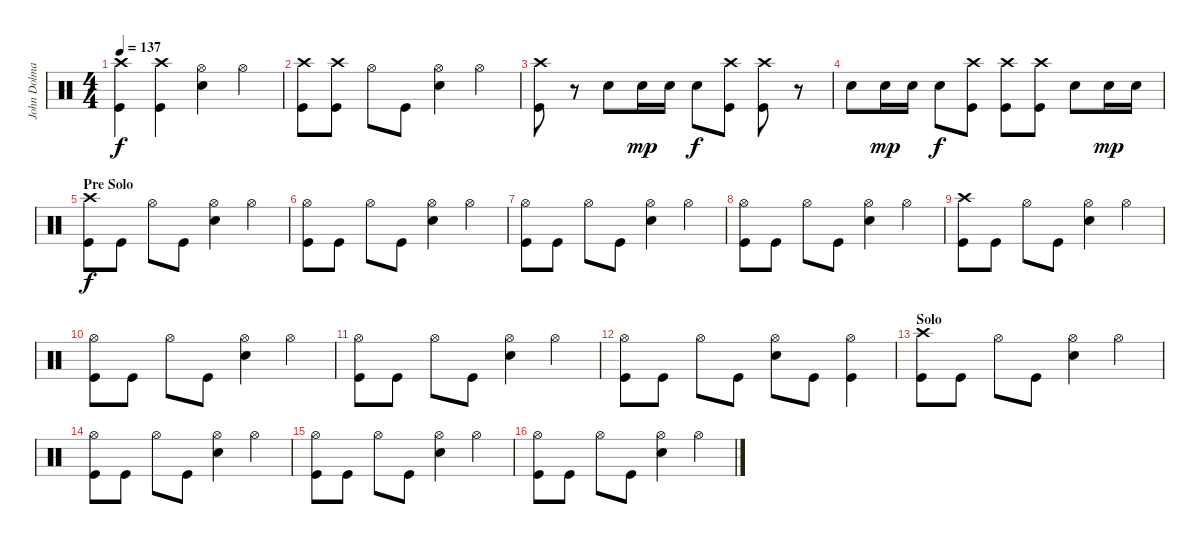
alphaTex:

\track ("John Dolmayan - Drums" "John Dolma") {instrument percussion}
\staff {score}
\articulation defaults
\ts (4 4)
\tempo 137
\clef neutral
\ks c
("Crash high (hit)" "Kick (hit)").4{dy f} ("Crash high (hit)" "Kick (hit)").4 ("Hi-Hat (open)" "Snare (hit) 2").4 "Hi-Hat (open)".4 |
("Crash high (hit)" "Kick (hit)").8 ("Crash high (hit)" "Kick (hit)").8 "Hi-Hat (open)".8 "Kick (hit)".8 ("Hi-Hat (open)" "Snare (hit) 2").4 "Hi-Hat (open)".4 |
("Crash high (hit)" "Kick (hit)").8 r.8 "Snare (hit) 2".8 "Snare (hit) 2".16{dy mp} "Snare (hit) 2".16 "Snare (hit) 2".8{dy f} ("Crash high (hit)" "Kick (hit)").8 ("Crash high (hit)" "Kick (hit)").8 r.8 |
"Snare (hit) 2".8 "Snare (hit) 2".16{dy mp} "Snare (hit) 2".16 "Snare (hit) 2".8{dy f} ("Crash high (hit)" "Kick (hit)").8 ("Crash high (hit)" "Kick (hit)").8 ("Crash high (hit)" "Kick (hit)").8 "Snare (hit) 2".8 "Snare (hit) 2".16{dy mp} "Snare (hit) 2".16 |
\section ("" "Pre Solo")
("Crash high (hit)" "Kick (hit)").8{dy f} "Kick (hit)".8 "Hi-Hat (open)".8 "Kick (hit)".8 ("Hi-Hat (open)" "Snare (hit) 2").4 "Hi-Hat (open)".4 |
("Hi-Hat (open)" "Kick (hit)").8 "Kick (hit)".8 "Hi-Hat (open)".8 "Kick (hit)".8 ("Hi-Hat (open)" "Snare (hit) 2").4 "Hi-Hat (open)".4 |
("Hi-Hat (open)" "Kick (hit)").8 "Kick (hit)".8 "Hi-Hat (open)".8 "Kick (hit)".8 ("Hi-Hat (open)" "Snare (hit) 2").4 "Hi-Hat (open)".4 |
("Hi-Hat (open)" "Kick (hit)").8 "Kick (hit)".8 "Hi-Hat (open)".8 "Kick (hit)".8 ("Hi-Hat (open)" "Snare (hit) 2").4 "Hi-Hat (open)".4 |
("Crash high (hit)" "Kick (hit)").8 "Kick (hit)".8 "Hi-Hat (open)".8 "Kick (hit)".8 ("Hi-Hat (open)" "Snare (hit) 2").4 "Hi-Hat (open)".4 |
("Hi-Hat (open)" "Kick (hit)").8 "Kick (hit)".8 "Hi-Hat (open)".8 "Kick (hit)".8 ("Hi-Hat (open)" "Snare (hit) 2").4 "Hi-Hat (open)".4 |
("Hi-Hat (open)" "Kick (hit)").8 "Kick (hit)".8 "Hi-Hat (open)".8 "Kick (hit)".8 ("Hi-Hat (open)" "Snare (hit) 2").4 "Hi-Hat (open)".4 |
("Hi-Hat (open)" "Kick (hit)").8 "Kick (hit)".8 "Hi-Hat (open)".8 "Kick (hit)".8 ("Hi-Hat (open)" "Snare (hit) 2").8 "Kick (hit)".8 ("Hi-Hat (open)" "Kick (hit)").4 |
\section ("" "Solo")
("Crash high (hit)" "Kick (hit)").8 "Kick (hit)".8 "Hi-Hat (open)".8 "Kick (hit)".8 ("Hi-Hat (open)" "Snare (hit) 2").4 "Hi-Hat (open)".4 |
("Hi-Hat (open)" "Kick (hit)").8 "Kick (hit)".8 "Hi-Hat (open)".8 "Kick (hit)".8 ("Hi-Hat (open)" "Snare (hit) 2").4 "Hi-Hat (open)".4 |
("Hi-Hat (open)" "Kick (hit)").8 "Kick (hit)".8 "Hi-Hat (open)".8 "Kick (hit)".8 ("Hi-Hat (open)" "Snare (hit) 2").4 "Hi-Hat (open)".4 |
("Hi-Hat (open)" "Kick (hit)").8 "Kick (hit)".8 "Hi-Hat (open)".8 "Kick (hit)".8 ("Hi-Hat (open)" "Snare (hit) 2").4 "Hi-Hat (open)".4
